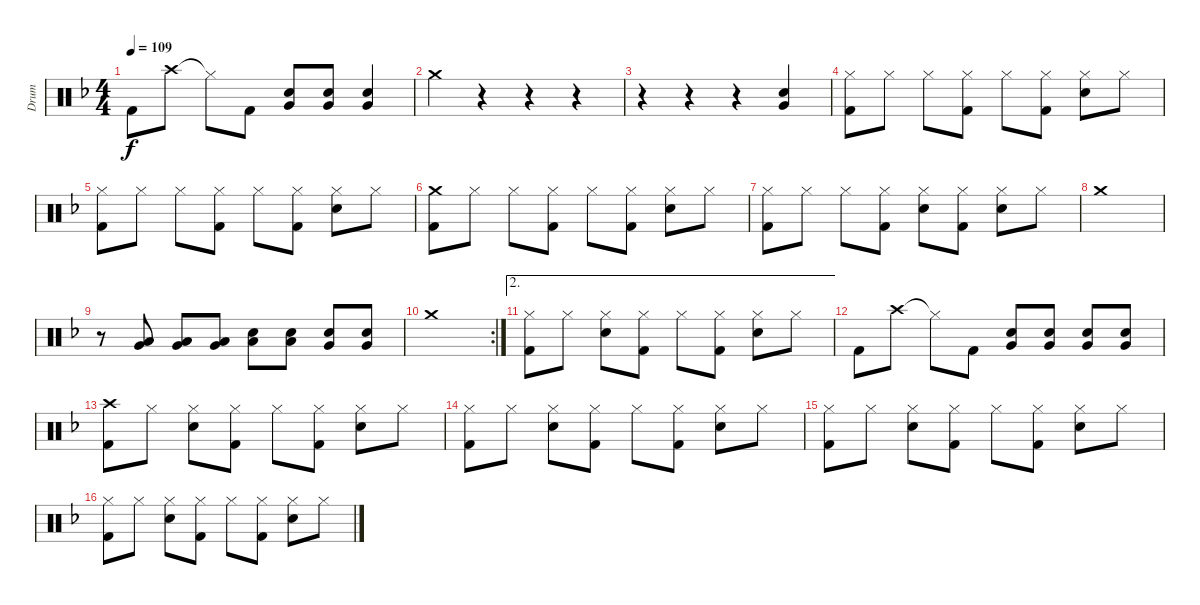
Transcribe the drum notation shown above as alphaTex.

\track ("Drum" "Drum") {instrument percussion}
\staff {score}
\articulation defaults
\ts (4 4)
\tempo 109
\clef neutral
\ks f "Kick (hit) 2".8{dy f} "Crash high (hit)".8 "Hi-Hat (closed)"{t}.8 "Kick (hit) 2".8
("Very Low Tom (hit)" "Electric Snare (hit)").8 ("Very Low Tom (hit)" "Electric Snare (hit)").8 ("Very Low Tom (hit)" "Electric Snare (hit)").4 |
"Crash medium (hit)".4 r.4 r.4 r.4 |
r.4 r.4 r.4 ("Very Low Tom (hit)" "Electric Snare (hit)").4 |
("Hi-Hat (closed)" "Kick (hit) 2").8 "Hi-Hat (closed)".8 "Hi-Hat (closed)".8 ("Hi-Hat (closed)" "Kick (hit) 2").8 "Hi-Hat (closed)".8 ("Hi-Hat (closed)" "Kick (hit) 2").8 ("Hi-Hat (closed)" "Electric Snare (hit)").8 "Hi-Hat (closed)".8 |
("Hi-Hat (closed)" "Kick (hit) 2").8 "Hi-Hat (closed)".8 "Hi-Hat (closed)".8 ("Hi-Hat (closed)" "Kick (hit) 2").8 "Hi-Hat (closed)".8 ("Hi-Hat (closed)" "Kick (hit) 2").8 ("Hi-Hat (closed)" "Electric Snare (hit)").8 "Hi-Hat (closed)".8 |
("Crash medium (hit)" "Kick (hit) 2").8 "Hi-Hat (closed)".8 "Hi-Hat (closed)".8 ("Hi-Hat (closed)" "Kick (hit) 2").8 "Hi-Hat (closed)".8 ("Hi-Hat (closed)" "Kick (hit) 2").8 ("Hi-Hat (closed)" "Electric Snare (hit)").8 "Hi-Hat (closed)".8 |
("Hi-Hat (closed)" "Kick (hit) 2").8 "Hi-Hat (closed)".8 "Hi-Hat (closed)".8 ("Hi-Hat (closed)" "Kick (hit) 2").8 ("Hi-Hat (closed)" "Electric Snare (hit)").8 ("Hi-Hat (closed)" "Kick (hit) 2").8 ("Hi-Hat (closed)" "Electric Snare (hit)").8 "Hi-Hat (closed)".8 |
"Crash medium (hit)".1 |
r.8 ("Very Low Tom (hit)" "Low Floor Tom (hit)").8 ("Very Low Tom (hit)" "Low Floor Tom (hit)").8 ("Very Low Tom (hit)" "Low Floor Tom (hit)").8 ("Electric Snare (hit)" "Low Floor Tom (hit)").8 ("Electric Snare (hit)" "Low Floor Tom (hit)").8 ("Electric Snare (hit)" "Very Low Tom (hit)").8 ("Electric Snare (hit)" "Very Low Tom (hit)").8 |
\rc 2 "Crash medium (hit)".1
|
\ae 2
("Hi-Hat (closed)" "Kick (hit) 2").8 "Hi-Hat (closed)".8 ("Hi-Hat (closed)" "Electric Snare (hit)").8 ("Hi-Hat (closed)" "Kick (hit) 2").8 "Hi-Hat (closed)".8 ("Hi-Hat (closed)" "Kick (hit) 2").8 ("Hi-Hat (closed)" "Electric Snare (hit)").8 "Hi-Hat (closed)".8 |
"Kick (hit) 2".8 "Crash high (hit)".8 "Hi-Hat (closed)"{t}.8 "Kick (hit) 2".8 ("Very Low Tom (hit)" "Electric Snare (hit)").8 ("Very Low Tom (hit)" "Electric Snare (hit)").8 ("Very Low Tom (hit)" "Electric Snare (hit)").8 ("Very Low Tom (hit)" "Electric Snare (hit)").8 |
("Crash high (hit)" "Kick (hit) 2").8 "Hi-Hat (closed)".8 ("Hi-Hat (closed)" "Electric Snare (hit)").8 ("Hi-Hat (closed)" "Kick (hit) 2").8 "Hi-Hat (closed)".8 ("Hi-Hat (closed)" "Kick (hit) 2").8 ("Hi-Hat (closed)" "Electric Snare (hit)").8 "Hi-Hat (closed)".8 |
("Hi-Hat (closed)" "Kick (hit) 2").8 "Hi-Hat (closed)".8 ("Hi-Hat (closed)" "Electric Snare (hit)").8 ("Hi-Hat (closed)" "Kick (hit) 2").8 "Hi-Hat (closed)".8 ("Hi-Hat (closed)" "Kick (hit) 2").8 ("Hi-Hat (closed)" "Electric Snare (hit)").8 "Hi-Hat (closed)".8 |
("Hi-Hat (closed)" "Kick (hit) 2").8 "Hi-Hat (closed)".8 ("Hi-Hat (closed)" "Electric Snare (hit)").8 ("Hi-Hat (closed)" "Kick (hit) 2").8 "Hi-Hat (closed)".8 ("Hi-Hat (closed)" "Kick (hit) 2").8 ("Hi-Hat (closed)" "Electric Snare (hit)").8 "Hi-Hat (closed)".8 |
("Hi-Hat (closed)" "Kick (hit) 2").8 "Hi-Hat (closed)".8 ("Hi-Hat (closed)" "Electric Snare (hit)").8 ("Hi-Hat (closed)" "Kick (hit) 2").8 "Hi-Hat (closed)".8 ("Hi-Hat (closed)" "Kick (hit) 2").8 ("Hi-Hat (closed)" "Electric Snare (hit)").8 "Hi-Hat (closed)".8
